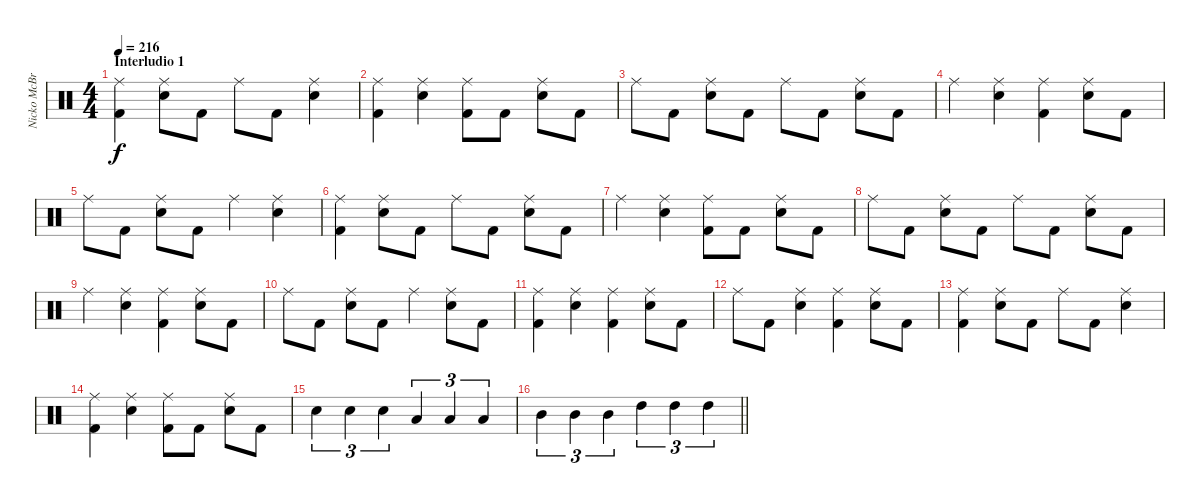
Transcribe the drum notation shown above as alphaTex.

\track ("Nicko McBrain" "Nicko McBr") {instrument percussion}
\staff {score}
\articulation defaults
\ts (4 4)
\section ("" "Interludio 1")
\tempo 216
\clef neutral
\ks c
("Ride (middle)" "Kick (hit) 2").4{dy f} ("Ride (middle)" "Snare (hit) 2").8 "Kick (hit) 2".8 "Ride (middle)".8 "Kick (hit) 2".8 ("Ride (middle)" "Snare (hit) 2").4 |
("Ride (middle)" "Kick (hit) 2").4 ("Ride (middle)" "Snare (hit) 2").4 ("Ride (middle)" "Kick (hit) 2").8 "Kick (hit) 2".8 ("Ride (middle)" "Snare (hit) 2").8 "Kick (hit) 2".8 |
"Ride (middle)".8 "Kick (hit) 2".8 ("Ride (middle)" "Snare (hit) 2").8 "Kick (hit) 2".8 "Ride (middle)".8 "Kick (hit) 2".8 ("Ride (middle)" "Snare (hit) 2").8 "Kick (hit) 2".8 |
"Ride (middle)".4 ("Ride (middle)" "Snare (hit) 2").4 ("Ride (middle)" "Kick (hit) 2").4 ("Ride (middle)" "Snare (hit) 2").8 "Kick (hit) 2".8 |
"Ride (middle)".8 "Kick (hit) 2".8 ("Ride (middle)" "Snare (hit) 2").8 "Kick (hit) 2".8 "Ride (middle)".4 ("Ride (middle)" "Snare (hit) 2").4 |
("Ride (middle)" "Kick (hit) 2").4 ("Ride (middle)" "Snare (hit) 2").8 "Kick (hit) 2".8 "Ride (middle)".8 "Kick (hit) 2".8 ("Ride (middle)" "Snare (hit) 2").8 "Kick (hit) 2".8 |
"Ride (middle)".4 ("Ride (middle)" "Snare (hit) 2").4 ("Ride (middle)" "Kick (hit) 2").8 "Kick (hit) 2".8 ("Ride (middle)" "Snare (hit) 2").8 "Kick (hit) 2".8 |
"Ride (middle)".8 "Kick (hit) 2".8 ("Ride (middle)" "Snare (hit) 2").8 "Kick (hit) 2".8 "Ride (middle)".8 "Kick (hit) 2".8 ("Ride (middle)" "Snare (hit) 2").8 "Kick (hit) 2".8 |
"Ride (middle)".4 ("Ride (middle)" "Snare (hit) 2").4 ("Ride (middle)" "Kick (hit) 2").4 ("Ride (middle)" "Snare (hit) 2").8 "Kick (hit) 2".8 |
"Ride (middle)".8 "Kick (hit) 2".8 ("Ride (middle)" "Snare (hit) 2").8 "Kick (hit) 2".8 "Ride (middle)".4 ("Ride (middle)" "Snare (hit) 2").8 "Kick (hit) 2".8 |
("Ride (middle)" "Kick (hit) 2").4 ("Ride (middle)" "Snare (hit) 2").4 ("Ride (middle)" "Kick (hit) 2").4 ("Ride (middle)" "Snare (hit) 2").8 "Kick (hit) 2".8 |
"Ride (middle)".8 "Kick (hit) 2".8 ("Ride (middle)" "Snare (hit) 2").4 ("Ride (middle)" "Kick (hit) 2").4 ("Ride (middle)" "Snare (hit) 2").8 "Kick (hit) 2".8 |
("Ride (middle)" "Kick (hit) 2").4 ("Ride (middle)" "Snare (hit) 2").8 "Kick (hit) 2".8 "Ride (middle)".8 "Kick (hit) 2".8 ("Ride (middle)" "Snare (hit) 2").4 |
("Ride (middle)" "Kick (hit) 2").4 ("Ride (middle)" "Snare (hit) 2").4 ("Ride (middle)" "Kick (hit) 2").8 "Kick (hit) 2".8 ("Ride (middle)" "Snare (hit) 2").8 "Kick (hit) 2".8 |
"Snare (hit) 2".4{tu (3 2)} "Snare (hit) 2".4{tu (3 2)} "Snare (hit) 2".4{tu (3 2)} "Low Tom (hit)".4{tu (3 2)} "Low Tom (hit)".4{tu (3 2)} "Low Tom (hit)".4{tu (3 2)} |
\barLineRight lightlight "Mid Tom (hit)".4{tu (3 2)} "Mid Tom (hit)".4{tu (3 2)} "Mid Tom (hit)".4{tu (3 2)} "High Tom (hit)".4{tu (3 2)} "High Tom (hit)".4{tu (3 2)} "High Tom (hit)".4{tu (3 2)}
